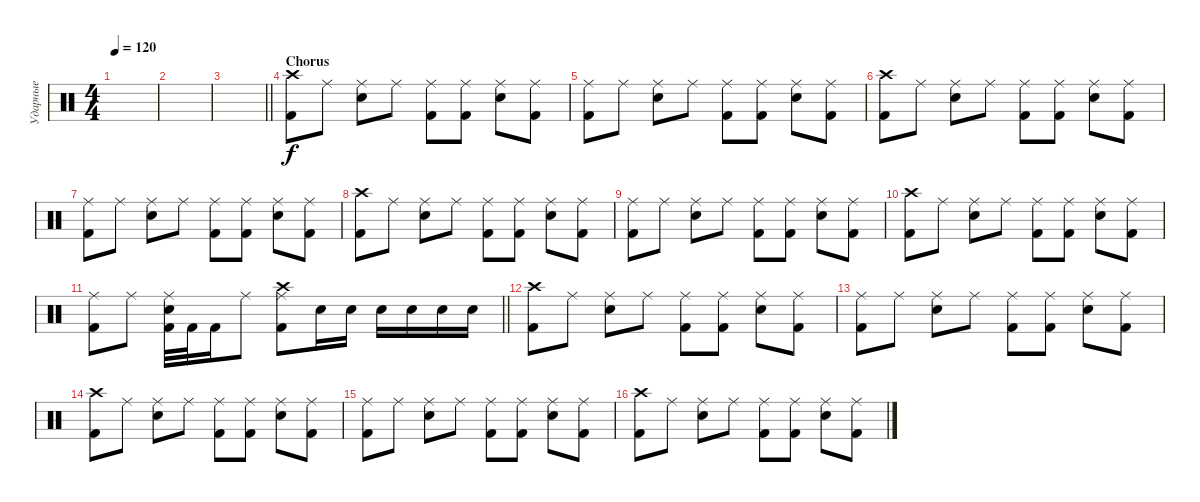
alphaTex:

\track ("Ударные" "Ударные") {instrument percussion}
\staff {score}
\articulation defaults
\ts (4 4)
\tempo 120
\clef neutral
\ks c
|
|
\barLineRight lightlight
|
\section ("" "Chorus")
("Crash high (hit)" "Kick (hit) 2").8 "Ride (middle)".8 ("Ride (middle)" "Electric Snare (hit)").8 "Ride (middle)".8 ("Ride (middle)" "Kick (hit) 2").8 ("Ride (middle)" "Kick (hit) 2").8 ("Ride (middle)" "Electric Snare (hit)").8 ("Ride (middle)" "Kick (hit) 2").8 |
("Ride (middle)" "Kick (hit) 2").8 "Ride (middle)".8 ("Ride (middle)" "Electric Snare (hit)").8 "Ride (middle)".8 ("Ride (middle)" "Kick (hit) 2").8 ("Ride (middle)" "Kick (hit) 2").8 ("Ride (middle)" "Electric Snare (hit)").8 ("Ride (middle)" "Kick (hit) 2").8 |
("Crash high (hit)" "Kick (hit) 2").8 "Ride (middle)".8 ("Ride (middle)" "Electric Snare (hit)").8 "Ride (middle)".8 ("Ride (middle)" "Kick (hit) 2").8 ("Ride (middle)" "Kick (hit) 2").8 ("Ride (middle)" "Electric Snare (hit)").8 ("Ride (middle)" "Kick (hit) 2").8 |
("Ride (middle)" "Kick (hit) 2").8 "Ride (middle)".8 ("Ride (middle)" "Electric Snare (hit)").8 "Ride (middle)".8 ("Ride (middle)" "Kick (hit) 2").8 ("Ride (middle)" "Kick (hit) 2").8 ("Ride (middle)" "Electric Snare (hit)").8 ("Ride (middle)" "Kick (hit) 2").8 |
("Crash high (hit)" "Kick (hit) 2").8 "Ride (middle)".8 ("Ride (middle)" "Electric Snare (hit)").8 "Ride (middle)".8 ("Ride (middle)" "Kick (hit) 2").8 ("Ride (middle)" "Kick (hit) 2").8 ("Ride (middle)" "Electric Snare (hit)").8 ("Ride (middle)" "Kick (hit) 2").8 |
("Ride (middle)" "Kick (hit) 2").8 "Ride (middle)".8 ("Ride (middle)" "Electric Snare (hit)").8 "Ride (middle)".8 ("Ride (middle)" "Kick (hit) 2").8 ("Ride (middle)" "Kick (hit) 2").8 ("Ride (middle)" "Electric Snare (hit)").8 ("Ride (middle)" "Kick (hit) 2").8 |
("Crash high (hit)" "Kick (hit) 2").8 "Ride (middle)".8 ("Ride (middle)" "Electric Snare (hit)").8 "Ride (middle)".8 ("Ride (middle)" "Kick (hit) 2").8 ("Ride (middle)" "Kick (hit) 2").8 ("Ride (middle)" "Electric Snare (hit)").8 ("Ride (middle)" "Kick (hit) 2").8 |
\barLineRight lightlight
("Ride (middle)" "Kick (hit) 2").8 "Ride (middle)".8 ("Ride (middle)" "Electric Snare (hit)" "Kick (hit) 2").32 "Kick (hit) 2".32 "Kick (hit) 2".16 "Ride (middle)".8 ("Crash high (hit)" "Ride (middle)" "Kick (hit) 2").8 "Electric Snare (hit)".16 "Electric Snare (hit)".16 "Electric Snare (hit)".16 "Electric Snare (hit)".16 "Electric Snare (hit)".16 "Electric Snare (hit)".16 |
("Crash high (hit)" "Kick (hit) 2").8 "Ride (middle)".8 ("Ride (middle)" "Electric Snare (hit)").8 "Ride (middle)".8 ("Ride (middle)" "Kick (hit) 2").8 ("Ride (middle)" "Kick (hit) 2").8 ("Ride (middle)" "Electric Snare (hit)").8 ("Ride (middle)" "Kick (hit) 2").8 |
("Ride (middle)" "Kick (hit) 2").8 "Ride (middle)".8 ("Ride (middle)" "Electric Snare (hit)").8 "Ride (middle)".8 ("Ride (middle)" "Kick (hit) 2").8 ("Ride (middle)" "Kick (hit) 2").8 ("Ride (middle)" "Electric Snare (hit)").8 ("Ride (middle)" "Kick (hit) 2").8 |
("Crash high (hit)" "Kick (hit) 2").8 "Ride (middle)".8 ("Ride (middle)" "Electric Snare (hit)").8 "Ride (middle)".8 ("Ride (middle)" "Kick (hit) 2").8 ("Ride (middle)" "Kick (hit) 2").8 ("Ride (middle)" "Electric Snare (hit)").8 ("Ride (middle)" "Kick (hit) 2").8 |
("Ride (middle)" "Kick (hit) 2").8 "Ride (middle)".8 ("Ride (middle)" "Electric Snare (hit)").8 "Ride (middle)".8 ("Ride (middle)" "Kick (hit) 2").8 ("Ride (middle)" "Kick (hit) 2").8 ("Ride (middle)" "Electric Snare (hit)").8 ("Ride (middle)" "Kick (hit) 2").8 |
("Crash high (hit)" "Kick (hit) 2").8 "Ride (middle)".8 ("Ride (middle)" "Electric Snare (hit)").8 "Ride (middle)".8 ("Ride (middle)" "Kick (hit) 2").8 ("Ride (middle)" "Kick (hit) 2").8 ("Ride (middle)" "Electric Snare (hit)").8 ("Ride (middle)" "Kick (hit) 2").8
